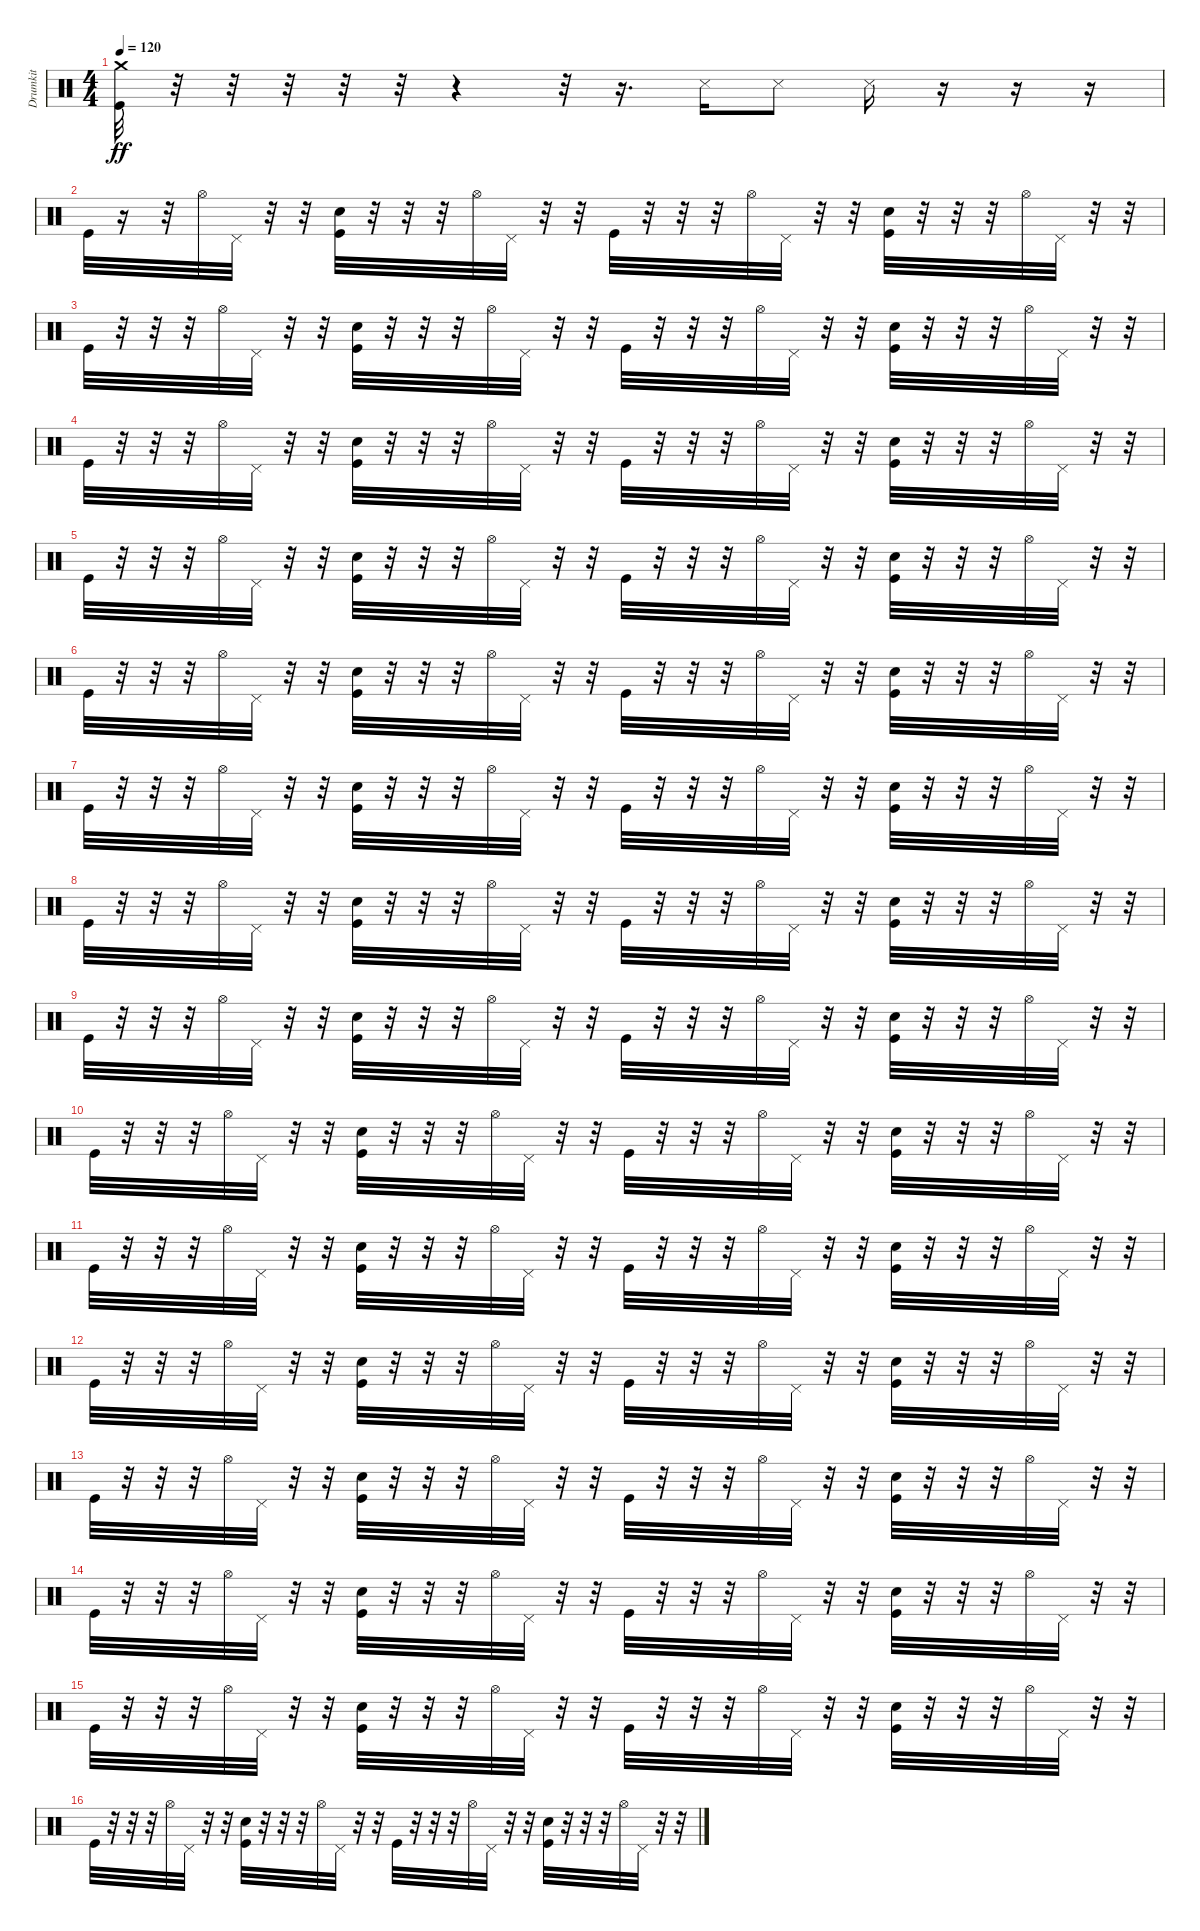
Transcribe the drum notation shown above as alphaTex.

\track ("Drumkit" "Drumkit") {instrument percussion}
\staff {score}
\articulation defaults
\ts (4 4)
\tempo 120
\clef neutral
\ks c
("Kick (hit)" "Crash medium (hit)").32{dy ff} r.32 r.32 r.32 r.32 r.32 r.4 r.32 r.16{d} "Snare (side stick) 3".16 "Snare (side stick) 3".8 "Snare (side stick) 3".16 r.16 r.16 r.16 |
"Kick (hit)".32 r.16 r.32 "Hi-Hat (open)".32 "Pedal Hi-Hat (hit)".32 r.32 r.32 ("Snare (hit) 2" "Kick (hit)").32 r.32 r.32 r.32 "Hi-Hat (open)".32 "Pedal Hi-Hat (hit)".32 r.32 r.32 "Kick (hit)".32 r.32 r.32 r.32 "Hi-Hat (open)".32 "Pedal Hi-Hat (hit)".32 r.32 r.32 ("Kick (hit)" "Snare (hit) 2").32 r.32 r.32 r.32 "Hi-Hat (open)".32 "Pedal Hi-Hat (hit)".32 r.32 r.32 |
"Kick (hit)".32 r.32 r.32 r.32 "Hi-Hat (open)".32 "Pedal Hi-Hat (hit)".32 r.32 r.32 ("Snare (hit) 2" "Kick (hit)").32 r.32 r.32 r.32 "Hi-Hat (open)".32 "Pedal Hi-Hat (hit)".32 r.32 r.32 "Kick (hit)".32 r.32 r.32 r.32 "Hi-Hat (open)".32 "Pedal Hi-Hat (hit)".32 r.32 r.32 ("Snare (hit) 2" "Kick (hit)").32 r.32 r.32 r.32 "Hi-Hat (open)".32 "Pedal Hi-Hat (hit)".32 r.32 r.32 |
"Kick (hit)".32 r.32 r.32 r.32 "Hi-Hat (open)".32 "Pedal Hi-Hat (hit)".32 r.32 r.32 ("Snare (hit) 2" "Kick (hit)").32 r.32 r.32 r.32 "Hi-Hat (open)".32 "Pedal Hi-Hat (hit)".32 r.32 r.32 "Kick (hit)".32 r.32 r.32 r.32 "Hi-Hat (open)".32 "Pedal Hi-Hat (hit)".32 r.32 r.32 ("Kick (hit)" "Snare (hit) 2").32 r.32 r.32 r.32 "Hi-Hat (open)".32 "Pedal Hi-Hat (hit)".32 r.32 r.32 |
"Kick (hit)".32 r.32 r.32 r.32 "Hi-Hat (open)".32 "Pedal Hi-Hat (hit)".32 r.32 r.32 ("Kick (hit)" "Snare (hit) 2").32 r.32 r.32 r.32 "Hi-Hat (open)".32 "Pedal Hi-Hat (hit)".32 r.32 r.32 "Kick (hit)".32 r.32 r.32 r.32 "Hi-Hat (open)".32 "Pedal Hi-Hat (hit)".32 r.32 r.32 ("Kick (hit)" "Snare (hit) 2").32 r.32 r.32 r.32 "Hi-Hat (open)".32 "Pedal Hi-Hat (hit)".32 r.32 r.32 |
"Kick (hit)".32 r.32 r.32 r.32 "Hi-Hat (open)".32 "Pedal Hi-Hat (hit)".32 r.32 r.32 ("Snare (hit) 2" "Kick (hit)").32 r.32 r.32 r.32 "Hi-Hat (open)".32 "Pedal Hi-Hat (hit)".32 r.32 r.32 "Kick (hit)".32 r.32 r.32 r.32 "Hi-Hat (open)".32 "Pedal Hi-Hat (hit)".32 r.32 r.32 ("Kick (hit)" "Snare (hit) 2").32 r.32 r.32 r.32 "Hi-Hat (open)".32 "Pedal Hi-Hat (hit)".32 r.32 r.32 |
"Kick (hit)".32 r.32 r.32 r.32 "Hi-Hat (open)".32 "Pedal Hi-Hat (hit)".32 r.32 r.32 ("Snare (hit) 2" "Kick (hit)").32 r.32 r.32 r.32 "Hi-Hat (open)".32 "Pedal Hi-Hat (hit)".32 r.32 r.32 "Kick (hit)".32 r.32 r.32 r.32 "Hi-Hat (open)".32 "Pedal Hi-Hat (hit)".32 r.32 r.32 ("Snare (hit) 2" "Kick (hit)").32 r.32 r.32 r.32 "Hi-Hat (open)".32 "Pedal Hi-Hat (hit)".32 r.32 r.32 |
"Kick (hit)".32 r.32 r.32 r.32 "Hi-Hat (open)".32 "Pedal Hi-Hat (hit)".32 r.32 r.32 ("Snare (hit) 2" "Kick (hit)").32 r.32 r.32 r.32 "Hi-Hat (open)".32 "Pedal Hi-Hat (hit)".32 r.32 r.32 "Kick (hit)".32 r.32 r.32 r.32 "Hi-Hat (open)".32 "Pedal Hi-Hat (hit)".32 r.32 r.32 ("Kick (hit)" "Snare (hit) 2").32 r.32 r.32 r.32 "Hi-Hat (open)".32 "Pedal Hi-Hat (hit)".32 r.32 r.32 |
"Kick (hit)".32 r.32 r.32 r.32 "Hi-Hat (open)".32 "Pedal Hi-Hat (hit)".32 r.32 r.32 ("Kick (hit)" "Snare (hit) 2").32 r.32 r.32 r.32 "Hi-Hat (open)".32 "Pedal Hi-Hat (hit)".32 r.32 r.32 "Kick (hit)".32 r.32 r.32 r.32 "Hi-Hat (open)".32 "Pedal Hi-Hat (hit)".32 r.32 r.32 ("Kick (hit)" "Snare (hit) 2").32 r.32 r.32 r.32 "Hi-Hat (open)".32 "Pedal Hi-Hat (hit)".32 r.32 r.32 |
"Kick (hit)".32 r.32 r.32 r.32 "Hi-Hat (open)".32 "Pedal Hi-Hat (hit)".32 r.32 r.32 ("Snare (hit) 2" "Kick (hit)").32 r.32 r.32 r.32 "Hi-Hat (open)".32 "Pedal Hi-Hat (hit)".32 r.32 r.32 "Kick (hit)".32 r.32 r.32 r.32 "Hi-Hat (open)".32 "Pedal Hi-Hat (hit)".32 r.32 r.32 ("Kick (hit)" "Snare (hit) 2").32 r.32 r.32 r.32 "Hi-Hat (open)".32 "Pedal Hi-Hat (hit)".32 r.32 r.32 |
"Kick (hit)".32 r.32 r.32 r.32 "Hi-Hat (open)".32 "Pedal Hi-Hat (hit)".32 r.32 r.32 ("Snare (hit) 2" "Kick (hit)").32 r.32 r.32 r.32 "Hi-Hat (open)".32 "Pedal Hi-Hat (hit)".32 r.32 r.32 "Kick (hit)".32 r.32 r.32 r.32 "Hi-Hat (open)".32 "Pedal Hi-Hat (hit)".32 r.32 r.32 ("Snare (hit) 2" "Kick (hit)").32 r.32 r.32 r.32 "Hi-Hat (open)".32 "Pedal Hi-Hat (hit)".32 r.32 r.32 |
"Kick (hit)".32 r.32 r.32 r.32 "Hi-Hat (open)".32 "Pedal Hi-Hat (hit)".32 r.32 r.32 ("Snare (hit) 2" "Kick (hit)").32 r.32 r.32 r.32 "Hi-Hat (open)".32 "Pedal Hi-Hat (hit)".32 r.32 r.32 "Kick (hit)".32 r.32 r.32 r.32 "Hi-Hat (open)".32 "Pedal Hi-Hat (hit)".32 r.32 r.32 ("Kick (hit)" "Snare (hit) 2").32 r.32 r.32 r.32 "Hi-Hat (open)".32 "Pedal Hi-Hat (hit)".32 r.32 r.32 |
"Kick (hit)".32 r.32 r.32 r.32 "Hi-Hat (open)".32 "Pedal Hi-Hat (hit)".32 r.32 r.32 ("Kick (hit)" "Snare (hit) 2").32 r.32 r.32 r.32 "Hi-Hat (open)".32 "Pedal Hi-Hat (hit)".32 r.32 r.32 "Kick (hit)".32 r.32 r.32 r.32 "Hi-Hat (open)".32 "Pedal Hi-Hat (hit)".32 r.32 r.32 ("Kick (hit)" "Snare (hit) 2").32 r.32 r.32 r.32 "Hi-Hat (open)".32 "Pedal Hi-Hat (hit)".32 r.32 r.32 |
"Kick (hit)".32 r.32 r.32 r.32 "Hi-Hat (open)".32 "Pedal Hi-Hat (hit)".32 r.32 r.32 ("Snare (hit) 2" "Kick (hit)").32 r.32 r.32 r.32 "Hi-Hat (open)".32 "Pedal Hi-Hat (hit)".32 r.32 r.32 "Kick (hit)".32 r.32 r.32 r.32 "Hi-Hat (open)".32 "Pedal Hi-Hat (hit)".32 r.32 r.32 ("Kick (hit)" "Snare (hit) 2").32 r.32 r.32 r.32 "Hi-Hat (open)".32 "Pedal Hi-Hat (hit)".32 r.32 r.32 |
"Kick (hit)".32 r.32 r.32 r.32 "Hi-Hat (open)".32 "Pedal Hi-Hat (hit)".32 r.32 r.32 ("Snare (hit) 2" "Kick (hit)").32 r.32 r.32 r.32 "Hi-Hat (open)".32 "Pedal Hi-Hat (hit)".32 r.32 r.32 "Kick (hit)".32 r.32 r.32 r.32 "Hi-Hat (open)".32 "Pedal Hi-Hat (hit)".32 r.32 r.32 ("Snare (hit) 2" "Kick (hit)").32 r.32 r.32 r.32 "Hi-Hat (open)".32 "Pedal Hi-Hat (hit)".32 r.32 r.32 |
"Kick (hit)".32 r.32 r.32 r.32 "Hi-Hat (open)".32 "Pedal Hi-Hat (hit)".32 r.32 r.32 ("Snare (hit) 2" "Kick (hit)").32 r.32 r.32 r.32 "Hi-Hat (open)".32 "Pedal Hi-Hat (hit)".32 r.32 r.32 "Kick (hit)".32 r.32 r.32 r.32 "Hi-Hat (open)".32 "Pedal Hi-Hat (hit)".32 r.32 r.32 ("Kick (hit)" "Snare (hit) 2").32 r.32 r.32 r.32 "Hi-Hat (open)".32 "Pedal Hi-Hat (hit)".32 r.32 r.32
